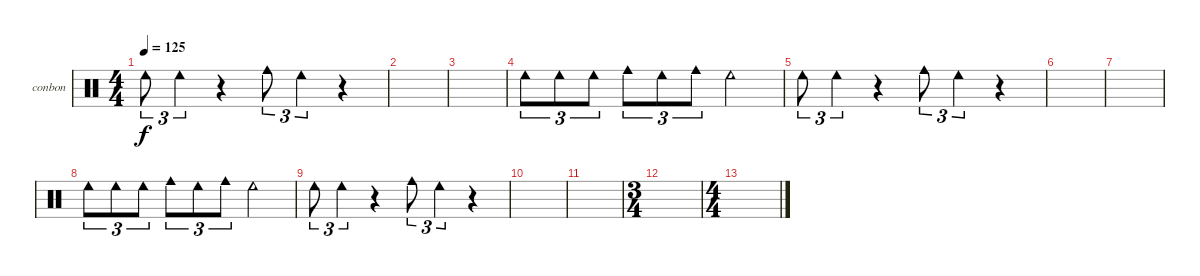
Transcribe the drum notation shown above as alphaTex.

\defaultSystemsLayout 4
\bracketExtendMode groupsimilarinstruments
\firstSystemTrackNameOrientation horizontal
\otherSystemsTrackNameOrientation horizontal
\track ("Bongos N Congas" "conbon") {instrument percussion}
\staff {score}
\articulation defaults
\ts (4 4)
\tempo 125
\clef neutral
\scale
0.333333
\ks c "Cowbell low (hit)".8{tu (3 2) dy f} "Cowbell low (hit)".4{tu (3 2)}
r.4 "Cowbell medium (hit)".8{tu (3 2)} "Cowbell low (hit)".4{tu (3 2)} r.4 |
\scale
0.333333 |
\scale
0.333333 |
\scale
0.333333 "Cowbell low (hit)".8{tu (3 2)} "Cowbell low (hit)".8{tu (3 2)} "Cowbell low (hit)".8{tu (3 2)} "Cowbell medium (hit)".8{tu (3 2)} "Cowbell low (hit)".8{tu (3 2)} "Cowbell medium (hit)".8{tu (3 2)} "Cowbell low (hit)".2 |
\scale
0.333333 "Cowbell low (hit)".8{tu (3 2)} "Cowbell low (hit)".4{tu (3 2)} r.4 "Cowbell medium (hit)".8{tu (3 2)} "Cowbell low (hit)".4{tu (3 2)} r.4 |
\scale
0.333333 |
\scale
0.333333 |
\scale
0.333333 "Cowbell low (hit)".8{tu (3 2)} "Cowbell low (hit)".8{tu (3 2)} "Cowbell low (hit)".8{tu (3 2)} "Cowbell medium (hit)".8{tu (3 2)} "Cowbell low (hit)".8{tu (3 2)} "Cowbell medium (hit)".8{tu (3 2)} "Cowbell low (hit)".2 |
\scale
0.333333 "Cowbell low (hit)".8{tu (3 2)} "Cowbell low (hit)".4{tu (3 2)} r.4 "Cowbell medium (hit)".8{tu (3 2)} "Cowbell low (hit)".4{tu (3 2)} r.4 |
\scale
0.262911 |
\scale
0.262911 |
\ts (3 4)
\scale
0.474178 |
\ts (4 4)
\scale
0.474178 |
\scale
0.262911 |
\scale
0.262911 |
\scale
0.333333
